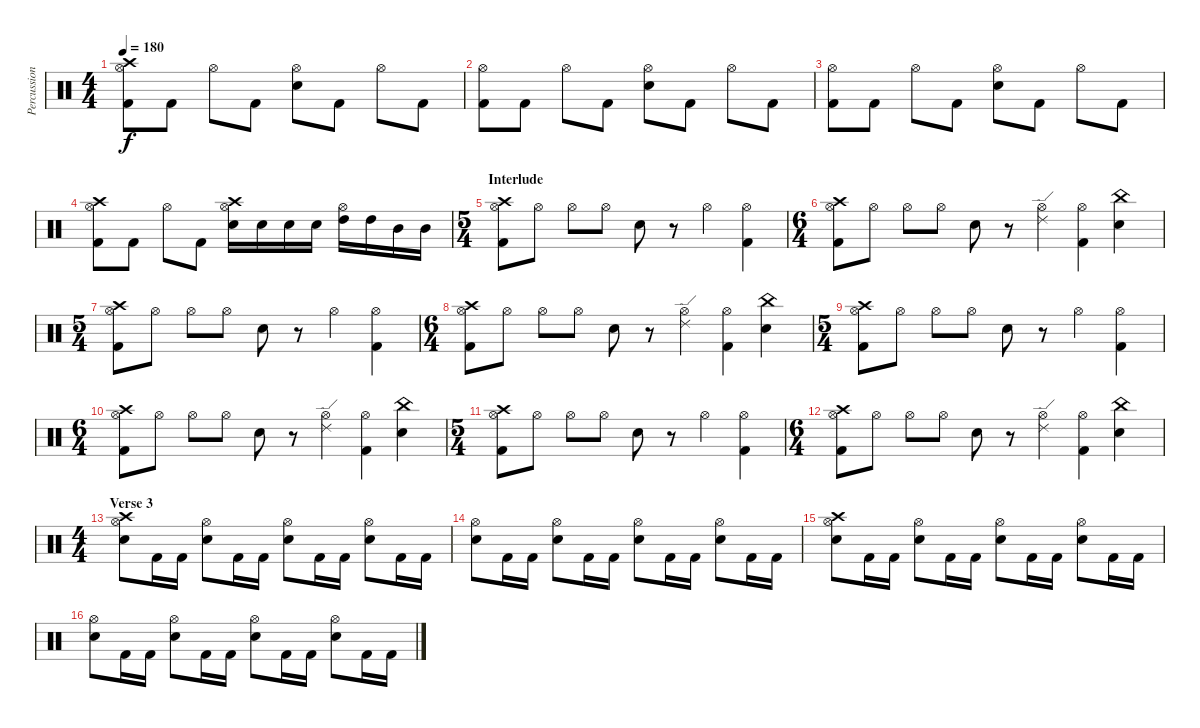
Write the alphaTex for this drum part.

\track ("Percussions" "Percussion") {instrument percussion}
\staff {score}
\articulation defaults
\ts (4 4)
\tempo 180
\clef neutral
\ks c
("Crash high (hit)" "Hi-Hat (open)" "Kick (hit) 2").8{dy f} "Kick (hit) 2".8 "Hi-Hat (open)".8 "Kick (hit) 2".8 ("Hi-Hat (open)" "Electric Snare (hit)").8 "Kick (hit) 2".8 "Hi-Hat (open)".8 "Kick (hit) 2".8 |
("Hi-Hat (open)" "Kick (hit) 2").8 "Kick (hit) 2".8 "Hi-Hat (open)".8 "Kick (hit) 2".8 ("Hi-Hat (open)" "Electric Snare (hit)").8 "Kick (hit) 2".8 "Hi-Hat (open)".8 "Kick (hit) 2".8 |
("Hi-Hat (open)" "Kick (hit) 2").8 "Kick (hit) 2".8 "Hi-Hat (open)".8 "Kick (hit) 2".8 ("Hi-Hat (open)" "Electric Snare (hit)").8 "Kick (hit) 2".8 "Hi-Hat (open)".8 "Kick (hit) 2".8 |
("Crash high (hit)" "Hi-Hat (open)" "Kick (hit) 2").8 "Kick (hit) 2".8 "Hi-Hat (open)".8 "Kick (hit) 2".8 ("Crash high (hit)" "Hi-Hat (open)" "Electric Snare (hit)").16 "Electric Snare (hit)".16 "Electric Snare (hit)".16 "Electric Snare (hit)".16 ("Hi-Hat (open)" "High Tom (hit)").16 "High Tom (hit)".16 "Mid Tom (hit)".16 "Mid Tom (hit)".16 |
\ts (5 4)
\section ("" "Interlude")
("Crash high (hit)" "Hi-Hat (open)" "Kick (hit) 2").8 "Hi-Hat (open)".8 "Hi-Hat (open)".8 "Hi-Hat (open)".8 "Electric Snare (hit)".8 r.8 "Hi-Hat (open)".4 ("Hi-Hat (open)" "Kick (hit) 2").4 |
\ts (6 4)
("Crash high (hit)" "Hi-Hat (open)" "Kick (hit) 2").8 "Hi-Hat (open)".8 "Hi-Hat (open)".8 "Hi-Hat (open)".8 "Electric Snare (hit)".8 r.8 ("Ride (edge) 2" "Hi-Hat (open)").4 ("Hi-Hat (open)" "Kick (hit) 2").4 ("China (hit)" "Electric Snare (hit)").4 |
\ts (5 4)
("Crash high (hit)" "Hi-Hat (open)" "Kick (hit) 2").8 "Hi-Hat (open)".8 "Hi-Hat (open)".8 "Hi-Hat (open)".8 "Electric Snare (hit)".8 r.8 "Hi-Hat (open)".4 ("Hi-Hat (open)" "Kick (hit) 2").4 |
\ts (6 4)
("Crash high (hit)" "Hi-Hat (open)" "Kick (hit) 2").8 "Hi-Hat (open)".8 "Hi-Hat (open)".8 "Hi-Hat (open)".8 "Electric Snare (hit)".8 r.8 ("Ride (edge) 2" "Hi-Hat (open)").4 ("Hi-Hat (open)" "Kick (hit) 2").4 ("China (hit)" "Electric Snare (hit)").4 |
\ts (5 4)
("Crash high (hit)" "Hi-Hat (open)" "Kick (hit) 2").8 "Hi-Hat (open)".8 "Hi-Hat (open)".8 "Hi-Hat (open)".8 "Electric Snare (hit)".8 r.8 "Hi-Hat (open)".4 ("Hi-Hat (open)" "Kick (hit) 2").4 |
\ts (6 4)
("Crash high (hit)" "Hi-Hat (open)" "Kick (hit) 2").8 "Hi-Hat (open)".8 "Hi-Hat (open)".8 "Hi-Hat (open)".8 "Electric Snare (hit)".8 r.8 ("Ride (edge) 2" "Hi-Hat (open)").4 ("Hi-Hat (open)" "Kick (hit) 2").4 ("China (hit)" "Electric Snare (hit)").4 |
\ts (5 4)
("Crash high (hit)" "Hi-Hat (open)" "Kick (hit) 2").8 "Hi-Hat (open)".8 "Hi-Hat (open)".8 "Hi-Hat (open)".8 "Electric Snare (hit)".8 r.8 "Hi-Hat (open)".4 ("Hi-Hat (open)" "Kick (hit) 2").4 |
\ts (6 4)
("Crash high (hit)" "Hi-Hat (open)" "Kick (hit) 2").8 "Hi-Hat (open)".8 "Hi-Hat (open)".8 "Hi-Hat (open)".8 "Electric Snare (hit)".8 r.8 ("Ride (edge) 2" "Hi-Hat (open)").4 ("Hi-Hat (open)" "Kick (hit) 2").4 ("China (hit)" "Electric Snare (hit)").4 |
\ts (4 4)
\section ("" "Verse 3")
("Crash high (hit)" "Hi-Hat (open)" "Electric Snare (hit)").8 "Kick (hit) 2".16 "Kick (hit) 2".16 ("Hi-Hat (open)" "Electric Snare (hit)").8 "Kick (hit) 2".16 "Kick (hit) 2".16 ("Hi-Hat (open)" "Electric Snare (hit)").8 "Kick (hit) 2".16 "Kick (hit) 2".16 ("Hi-Hat (open)" "Electric Snare (hit)").8 "Kick (hit) 2".16 "Kick (hit) 2".16 |
("Hi-Hat (open)" "Electric Snare (hit)").8 "Kick (hit) 2".16 "Kick (hit) 2".16 ("Hi-Hat (open)" "Electric Snare (hit)").8 "Kick (hit) 2".16 "Kick (hit) 2".16 ("Hi-Hat (open)" "Electric Snare (hit)").8 "Kick (hit) 2".16 "Kick (hit) 2".16 ("Hi-Hat (open)" "Electric Snare (hit)").8 "Kick (hit) 2".16 "Kick (hit) 2".16 |
("Crash high (hit)" "Hi-Hat (open)" "Electric Snare (hit)").8 "Kick (hit) 2".16 "Kick (hit) 2".16 ("Hi-Hat (open)" "Electric Snare (hit)").8 "Kick (hit) 2".16 "Kick (hit) 2".16 ("Hi-Hat (open)" "Electric Snare (hit)").8 "Kick (hit) 2".16 "Kick (hit) 2".16 ("Hi-Hat (open)" "Electric Snare (hit)").8 "Kick (hit) 2".16 "Kick (hit) 2".16 |
("Hi-Hat (open)" "Electric Snare (hit)").8 "Kick (hit) 2".16 "Kick (hit) 2".16 ("Hi-Hat (open)" "Electric Snare (hit)").8 "Kick (hit) 2".16 "Kick (hit) 2".16 ("Hi-Hat (open)" "Electric Snare (hit)").8 "Kick (hit) 2".16 "Kick (hit) 2".16 ("Hi-Hat (open)" "Electric Snare (hit)").8 "Kick (hit) 2".16 "Kick (hit) 2".16
